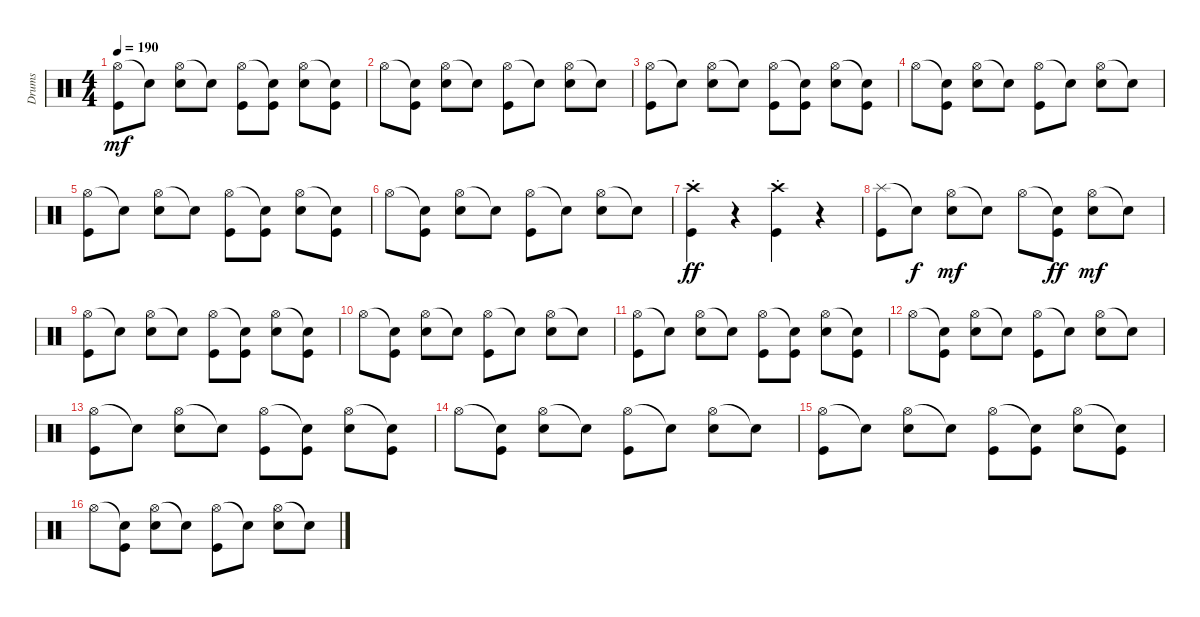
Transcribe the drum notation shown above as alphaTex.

\track ("Drums" "Drums") {instrument percussion}
\staff {score}
\articulation defaults
\ts (4 4)
\tempo 190
\clef neutral
\ks c
("Hi-Hat (open)" "Kick (hit)").8{dy mf} "Snare (hit)"{t}.8 ("Hi-Hat (open)" "Snare (hit) 2").8 "Snare (hit)"{t}.8 ("Hi-Hat (open)" "Kick (hit)").8 ("Snare (hit)"{t} "Kick (hit)").8 ("Hi-Hat (open)" "Snare (hit) 2").8 ("Snare (hit)"{t} "Kick (hit)").8 |
"Hi-Hat (open)".8 ("Snare (hit)"{t} "Kick (hit)").8 ("Hi-Hat (open)" "Snare (hit) 2").8 "Snare (hit)"{t}.8 ("Hi-Hat (open)" "Kick (hit)").8 "Snare (hit)"{t}.8 ("Hi-Hat (open)" "Snare (hit) 2").8 "Snare (hit)"{t}.8 |
("Hi-Hat (open)" "Kick (hit)").8 "Snare (hit)"{t}.8 ("Hi-Hat (open)" "Snare (hit) 2").8 "Snare (hit)"{t}.8 ("Hi-Hat (open)" "Kick (hit)").8 ("Snare (hit)"{t} "Kick (hit)").8 ("Hi-Hat (open)" "Snare (hit) 2").8 ("Snare (hit)"{t} "Kick (hit)").8 |
"Hi-Hat (open)".8 ("Snare (hit)"{t} "Kick (hit)").8 ("Hi-Hat (open)" "Snare (hit) 2").8 "Snare (hit)"{t}.8 ("Hi-Hat (open)" "Kick (hit)").8 "Snare (hit)"{t}.8 ("Hi-Hat (open)" "Snare (hit) 2").8 "Snare (hit)"{t}.8 |
("Hi-Hat (open)" "Kick (hit)").8 "Snare (hit)"{t}.8 ("Hi-Hat (open)" "Snare (hit) 2").8 "Snare (hit)"{t}.8 ("Hi-Hat (open)" "Kick (hit)").8 ("Snare (hit)"{t} "Kick (hit)").8 ("Hi-Hat (open)" "Snare (hit) 2").8 ("Snare (hit)"{t} "Kick (hit)").8 |
"Hi-Hat (open)".8 ("Snare (hit)"{t} "Kick (hit)").8 ("Hi-Hat (open)" "Snare (hit) 2").8 "Snare (hit)"{t}.8 ("Hi-Hat (open)" "Kick (hit)").8 "Snare (hit)"{t}.8 ("Hi-Hat (open)" "Snare (hit) 2").8 "Snare (hit)"{t}.8 |
("Crash high (hit)"{st} "Kick (hit)").4{dy ff} r.4 ("Crash high (hit)"{st} "Kick (hit)").4 r.4 |
("Splash (hit)" "Kick (hit)").8 "Snare (hit)"{t}.8{dy f} ("Hi-Hat (open)" "Snare (hit) 2").8{dy mf} "Snare (hit)"{t}.8 "Hi-Hat (open)".8 ("Snare (hit)"{t} "Kick (hit)").8{dy ff} ("Hi-Hat (open)" "Snare (hit) 2").8{dy mf} "Snare (hit)"{t}.8 |
("Hi-Hat (open)" "Kick (hit)").8 "Snare (hit)"{t}.8 ("Hi-Hat (open)" "Snare (hit) 2").8 "Snare (hit)"{t}.8 ("Hi-Hat (open)" "Kick (hit)").8 ("Snare (hit)"{t} "Kick (hit)").8 ("Hi-Hat (open)" "Snare (hit) 2").8 ("Snare (hit)"{t} "Kick (hit)").8 |
"Hi-Hat (open)".8 ("Snare (hit)"{t} "Kick (hit)").8 ("Hi-Hat (open)" "Snare (hit) 2").8 "Snare (hit)"{t}.8 ("Hi-Hat (open)" "Kick (hit)").8 "Snare (hit)"{t}.8 ("Hi-Hat (open)" "Snare (hit) 2").8 "Snare (hit)"{t}.8 |
("Hi-Hat (open)" "Kick (hit)").8 "Snare (hit)"{t}.8 ("Hi-Hat (open)" "Snare (hit) 2").8 "Snare (hit)"{t}.8 ("Hi-Hat (open)" "Kick (hit)").8 ("Snare (hit)"{t} "Kick (hit)").8 ("Hi-Hat (open)" "Snare (hit) 2").8 ("Snare (hit)"{t} "Kick (hit)").8 |
"Hi-Hat (open)".8 ("Snare (hit)"{t} "Kick (hit)").8 ("Hi-Hat (open)" "Snare (hit) 2").8 "Snare (hit)"{t}.8 ("Hi-Hat (open)" "Kick (hit)").8 "Snare (hit)"{t}.8 ("Hi-Hat (open)" "Snare (hit) 2").8 "Snare (hit)"{t}.8 |
("Hi-Hat (open)" "Kick (hit)").8 "Snare (hit)"{t}.8 ("Hi-Hat (open)" "Snare (hit) 2").8 "Snare (hit)"{t}.8 ("Hi-Hat (open)" "Kick (hit)").8 ("Snare (hit)"{t} "Kick (hit)").8 ("Hi-Hat (open)" "Snare (hit) 2").8 ("Snare (hit)"{t} "Kick (hit)").8 |
"Hi-Hat (open)".8 ("Snare (hit)"{t} "Kick (hit)").8 ("Hi-Hat (open)" "Snare (hit) 2").8 "Snare (hit)"{t}.8 ("Hi-Hat (open)" "Kick (hit)").8 "Snare (hit)"{t}.8 ("Hi-Hat (open)" "Snare (hit) 2").8 "Snare (hit)"{t}.8 |
("Hi-Hat (open)" "Kick (hit)").8 "Snare (hit)"{t}.8 ("Hi-Hat (open)" "Snare (hit) 2").8 "Snare (hit)"{t}.8 ("Hi-Hat (open)" "Kick (hit)").8 ("Snare (hit)"{t} "Kick (hit)").8 ("Hi-Hat (open)" "Snare (hit) 2").8 ("Snare (hit)"{t} "Kick (hit)").8 |
"Hi-Hat (open)".8 ("Snare (hit)"{t} "Kick (hit)").8 ("Hi-Hat (open)" "Snare (hit) 2").8 "Snare (hit)"{t}.8 ("Hi-Hat (open)" "Kick (hit)").8 "Snare (hit)"{t}.8 ("Hi-Hat (open)" "Snare (hit) 2").8 "Snare (hit)"{t}.8
